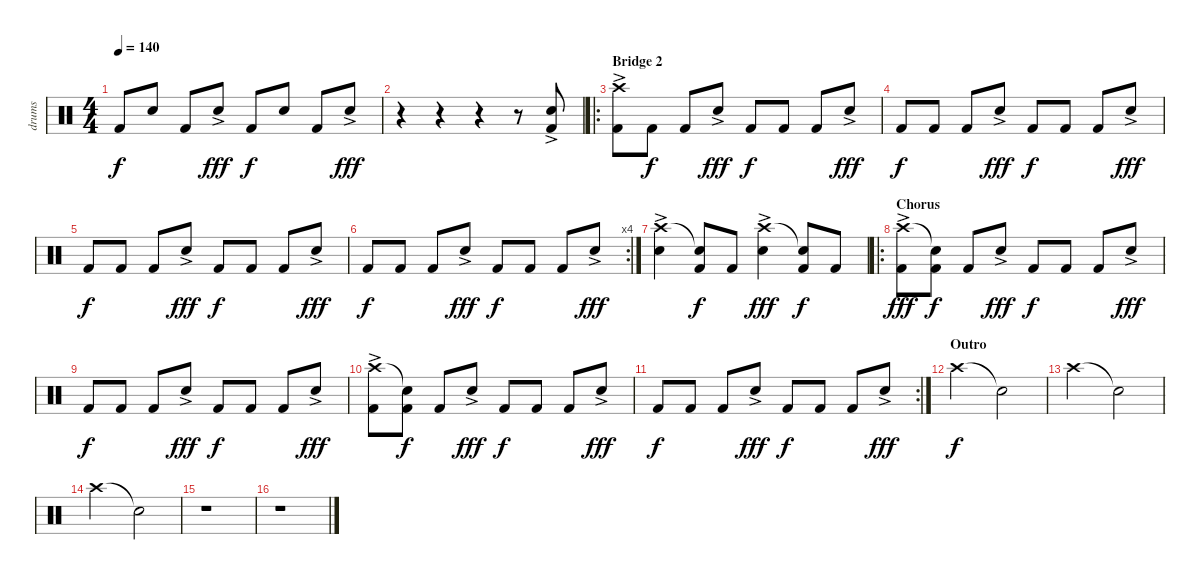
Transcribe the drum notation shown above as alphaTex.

\track ("drums" "drums") {instrument percussion}
\staff {score}
\articulation defaults
\ts (4 4)
\tempo 140
\clef neutral
\ks c "Kick (hit) 2".8{dy f} "Snare (hit) 2".8 "Kick (hit) 2".8 "Snare (hit) 2"{ac}.8{dy fff} "Kick (hit) 2".8{dy f} "Snare (hit) 2".8 "Kick (hit) 2".8 "Snare (hit) 2"{ac}.8{dy fff}
|
r.4 r.4 r.4 r.8 ("Kick (hit) 2"{ac} "Snare (hit) 2"{ac}).8 |
\ro
\section ("" "Bridge 2")
("Crash high (hit)"{ac} "Kick (hit) 2"{ac}).8 "Kick (hit) 2".8{dy f} "Kick (hit) 2".8 "Snare (hit) 2"{ac}.8{dy fff} "Kick (hit) 2".8{dy f} "Kick (hit) 2".8 "Kick (hit) 2".8 "Snare (hit) 2"{ac}.8{dy fff} |
"Kick (hit) 2".8{dy f} "Kick (hit) 2".8 "Kick (hit) 2".8 "Snare (hit) 2"{ac}.8{dy fff} "Kick (hit) 2".8{dy f} "Kick (hit) 2".8 "Kick (hit) 2".8 "Snare (hit) 2"{ac}.8{dy fff} |
"Kick (hit) 2".8{dy f} "Kick (hit) 2".8 "Kick (hit) 2".8 "Snare (hit) 2"{ac}.8{dy fff} "Kick (hit) 2".8{dy f} "Kick (hit) 2".8 "Kick (hit) 2".8 "Snare (hit) 2"{ac}.8{dy fff} |
\rc 4 "Kick (hit) 2".8{dy f} "Kick (hit) 2".8 "Kick (hit) 2".8 "Snare (hit) 2"{ac}.8{dy fff} "Kick (hit) 2".8{dy f} "Kick (hit) 2".8 "Kick (hit) 2".8 "Snare (hit) 2"{ac}.8{dy fff}
|
("Crash high (hit)"{ac} "Snare (hit) 2"{ac}).4 ("Snare (hit)"{t} "Kick (hit) 2").8{dy f} "Kick (hit) 2".8 ("Crash high (hit)"{ac} "Snare (hit) 2"{ac}).4{dy fff} ("Snare (hit)"{t} "Kick (hit) 2").8{dy f} "Kick (hit) 2".8 |
\ro
\section ("" "Chorus")
("Crash high (hit)"{ac} "Kick (hit) 2"{ac}).8{dy fff} ("Snare (hit)"{t} "Kick (hit) 2").8{dy f} "Kick (hit) 2".8 "Snare (hit) 2"{ac}.8{dy fff} "Kick (hit) 2".8{dy f} "Kick (hit) 2".8 "Kick (hit) 2".8 "Snare (hit) 2"{ac}.8{dy fff} |
"Kick (hit) 2".8{dy f} "Kick (hit) 2".8 "Kick (hit) 2".8 "Snare (hit) 2"{ac}.8{dy fff} "Kick (hit) 2".8{dy f} "Kick (hit) 2".8 "Kick (hit) 2".8 "Snare (hit) 2"{ac}.8{dy fff} |
("Crash high (hit)"{ac} "Kick (hit) 2"{ac}).8 ("Snare (hit)"{t} "Kick (hit) 2").8{dy f} "Kick (hit) 2".8 "Snare (hit) 2"{ac}.8{dy fff} "Kick (hit) 2".8{dy f} "Kick (hit) 2".8 "Kick (hit) 2".8 "Snare (hit) 2"{ac}.8{dy fff} |
\rc 2 "Kick (hit) 2".8{dy f} "Kick (hit) 2".8 "Kick (hit) 2".8 "Snare (hit) 2"{ac}.8{dy fff} "Kick (hit) 2".8{dy f} "Kick (hit) 2".8 "Kick (hit) 2".8 "Snare (hit) 2"{ac}.8{dy fff}
|
\section ("" "Outro")
"Crash high (hit)".2{dy f} "Snare (hit)"{t}.2 |
"Crash high (hit)".2 "Snare (hit)"{t}.2 |
"Crash high (hit)".2 "Snare (hit)"{t}.2 |
r.1 |
r.1
